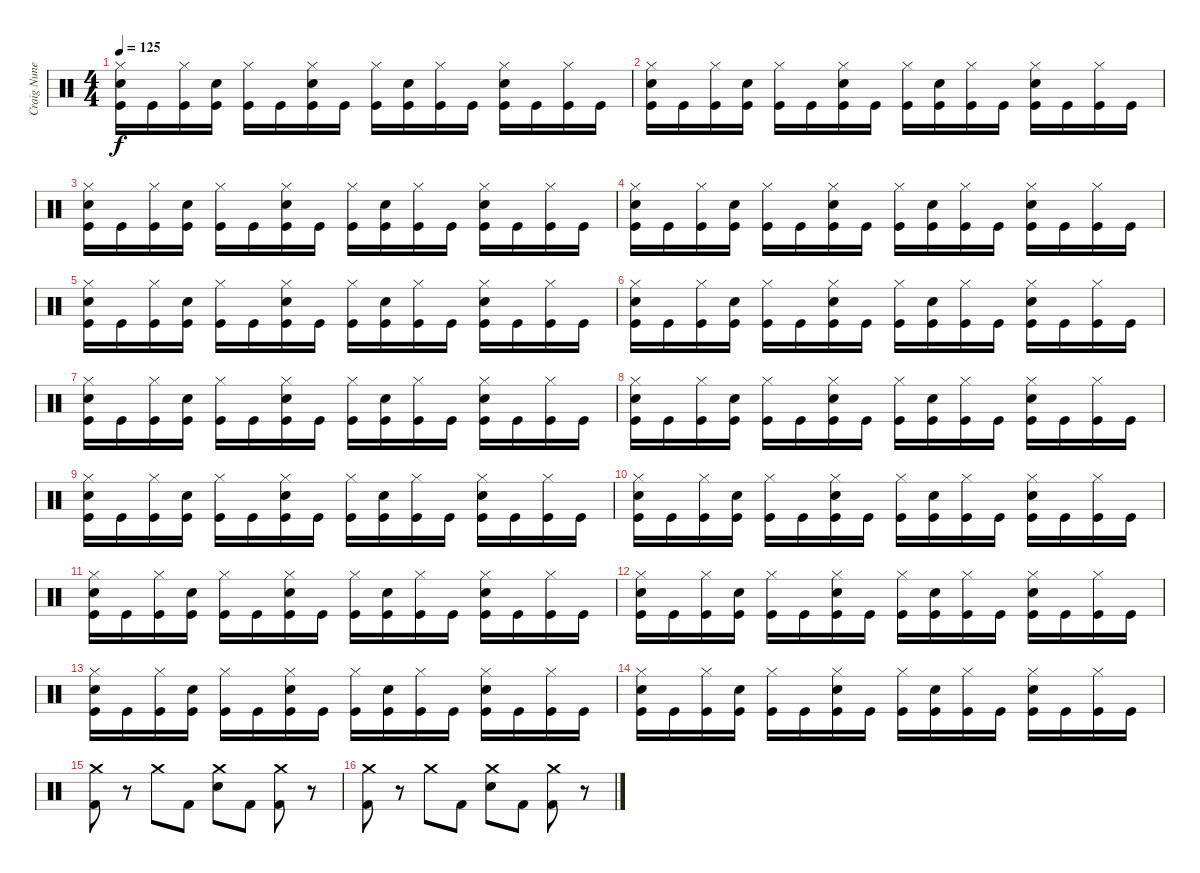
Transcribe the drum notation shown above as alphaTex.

\track ("Craig Nunenmacher (Drums)" "Craig Nune") {instrument percussion}
\staff {score}
\articulation defaults
\ts (4 4)
\tempo 125
\clef neutral
\ks c
("Hi-Hat (closed)" "Snare (hit) 2" "Kick (hit)").16{dy f} "Kick (hit)".16 ("Hi-Hat (closed)" "Kick (hit)").16 ("Snare (hit) 2" "Kick (hit)").16 ("Hi-Hat (closed)" "Kick (hit)").16 "Kick (hit)".16 ("Hi-Hat (closed)" "Snare (hit) 2" "Kick (hit)").16 "Kick (hit)".16 ("Hi-Hat (closed)" "Kick (hit)").16 ("Snare (hit) 2" "Kick (hit)").16 ("Hi-Hat (closed)" "Kick (hit)").16 "Kick (hit)".16 ("Hi-Hat (closed)" "Snare (hit) 2" "Kick (hit)").16 "Kick (hit)".16 ("Hi-Hat (closed)" "Kick (hit)").16 "Kick (hit)".16 |
("Hi-Hat (closed)" "Snare (hit) 2" "Kick (hit)").16 "Kick (hit)".16 ("Hi-Hat (closed)" "Kick (hit)").16 ("Snare (hit) 2" "Kick (hit)").16 ("Hi-Hat (closed)" "Kick (hit)").16 "Kick (hit)".16 ("Hi-Hat (closed)" "Snare (hit) 2" "Kick (hit)").16 "Kick (hit)".16 ("Hi-Hat (closed)" "Kick (hit)").16 ("Snare (hit) 2" "Kick (hit)").16 ("Hi-Hat (closed)" "Kick (hit)").16 "Kick (hit)".16 ("Hi-Hat (closed)" "Snare (hit) 2" "Kick (hit)").16 "Kick (hit)".16 ("Hi-Hat (closed)" "Kick (hit)").16 "Kick (hit)".16 |
("Hi-Hat (closed)" "Snare (hit) 2" "Kick (hit)").16 "Kick (hit)".16 ("Hi-Hat (closed)" "Kick (hit)").16 ("Snare (hit) 2" "Kick (hit)").16 ("Hi-Hat (closed)" "Kick (hit)").16 "Kick (hit)".16 ("Hi-Hat (closed)" "Snare (hit) 2" "Kick (hit)").16 "Kick (hit)".16 ("Hi-Hat (closed)" "Kick (hit)").16 ("Snare (hit) 2" "Kick (hit)").16 ("Hi-Hat (closed)" "Kick (hit)").16 "Kick (hit)".16 ("Hi-Hat (closed)" "Snare (hit) 2" "Kick (hit)").16 "Kick (hit)".16 ("Hi-Hat (closed)" "Kick (hit)").16 "Kick (hit)".16 |
("Hi-Hat (closed)" "Snare (hit) 2" "Kick (hit)").16 "Kick (hit)".16 ("Hi-Hat (closed)" "Kick (hit)").16 ("Snare (hit) 2" "Kick (hit)").16 ("Hi-Hat (closed)" "Kick (hit)").16 "Kick (hit)".16 ("Hi-Hat (closed)" "Snare (hit) 2" "Kick (hit)").16 "Kick (hit)".16 ("Hi-Hat (closed)" "Kick (hit)").16 ("Snare (hit) 2" "Kick (hit)").16 ("Hi-Hat (closed)" "Kick (hit)").16 "Kick (hit)".16 ("Hi-Hat (closed)" "Snare (hit) 2" "Kick (hit)").16 "Kick (hit)".16 ("Hi-Hat (closed)" "Kick (hit)").16 "Kick (hit)".16 |
("Hi-Hat (closed)" "Snare (hit) 2" "Kick (hit)").16 "Kick (hit)".16 ("Hi-Hat (closed)" "Kick (hit)").16 ("Snare (hit) 2" "Kick (hit)").16 ("Hi-Hat (closed)" "Kick (hit)").16 "Kick (hit)".16 ("Hi-Hat (closed)" "Snare (hit) 2" "Kick (hit)").16 "Kick (hit)".16 ("Hi-Hat (closed)" "Kick (hit)").16 ("Snare (hit) 2" "Kick (hit)").16 ("Hi-Hat (closed)" "Kick (hit)").16 "Kick (hit)".16 ("Hi-Hat (closed)" "Snare (hit) 2" "Kick (hit)").16 "Kick (hit)".16 ("Hi-Hat (closed)" "Kick (hit)").16 "Kick (hit)".16 |
("Hi-Hat (closed)" "Snare (hit) 2" "Kick (hit)").16 "Kick (hit)".16 ("Hi-Hat (closed)" "Kick (hit)").16 ("Snare (hit) 2" "Kick (hit)").16 ("Hi-Hat (closed)" "Kick (hit)").16 "Kick (hit)".16 ("Hi-Hat (closed)" "Snare (hit) 2" "Kick (hit)").16 "Kick (hit)".16 ("Hi-Hat (closed)" "Kick (hit)").16 ("Snare (hit) 2" "Kick (hit)").16 ("Hi-Hat (closed)" "Kick (hit)").16 "Kick (hit)".16 ("Hi-Hat (closed)" "Snare (hit) 2" "Kick (hit)").16 "Kick (hit)".16 ("Hi-Hat (closed)" "Kick (hit)").16 "Kick (hit)".16 |
("Hi-Hat (closed)" "Snare (hit) 2" "Kick (hit)").16 "Kick (hit)".16 ("Hi-Hat (closed)" "Kick (hit)").16 ("Snare (hit) 2" "Kick (hit)").16 ("Hi-Hat (closed)" "Kick (hit)").16 "Kick (hit)".16 ("Hi-Hat (closed)" "Snare (hit) 2" "Kick (hit)").16 "Kick (hit)".16 ("Hi-Hat (closed)" "Kick (hit)").16 ("Snare (hit) 2" "Kick (hit)").16 ("Hi-Hat (closed)" "Kick (hit)").16 "Kick (hit)".16 ("Hi-Hat (closed)" "Snare (hit) 2" "Kick (hit)").16 "Kick (hit)".16 ("Hi-Hat (closed)" "Kick (hit)").16 "Kick (hit)".16 |
("Hi-Hat (closed)" "Snare (hit) 2" "Kick (hit)").16 "Kick (hit)".16 ("Hi-Hat (closed)" "Kick (hit)").16 ("Snare (hit) 2" "Kick (hit)").16 ("Hi-Hat (closed)" "Kick (hit)").16 "Kick (hit)".16 ("Hi-Hat (closed)" "Snare (hit) 2" "Kick (hit)").16 "Kick (hit)".16 ("Hi-Hat (closed)" "Kick (hit)").16 ("Snare (hit) 2" "Kick (hit)").16 ("Hi-Hat (closed)" "Kick (hit)").16 "Kick (hit)".16 ("Hi-Hat (closed)" "Snare (hit) 2" "Kick (hit)").16 "Kick (hit)".16 ("Hi-Hat (closed)" "Kick (hit)").16 "Kick (hit)".16 |
("Hi-Hat (closed)" "Snare (hit) 2" "Kick (hit)").16 "Kick (hit)".16 ("Hi-Hat (closed)" "Kick (hit)").16 ("Snare (hit) 2" "Kick (hit)").16 ("Hi-Hat (closed)" "Kick (hit)").16 "Kick (hit)".16 ("Hi-Hat (closed)" "Snare (hit) 2" "Kick (hit)").16 "Kick (hit)".16 ("Hi-Hat (closed)" "Kick (hit)").16 ("Snare (hit) 2" "Kick (hit)").16 ("Hi-Hat (closed)" "Kick (hit)").16 "Kick (hit)".16 ("Hi-Hat (closed)" "Snare (hit) 2" "Kick (hit)").16 "Kick (hit)".16 ("Hi-Hat (closed)" "Kick (hit)").16 "Kick (hit)".16 |
("Hi-Hat (closed)" "Snare (hit) 2" "Kick (hit)").16 "Kick (hit)".16 ("Hi-Hat (closed)" "Kick (hit)").16 ("Snare (hit) 2" "Kick (hit)").16 ("Hi-Hat (closed)" "Kick (hit)").16 "Kick (hit)".16 ("Hi-Hat (closed)" "Snare (hit) 2" "Kick (hit)").16 "Kick (hit)".16 ("Hi-Hat (closed)" "Kick (hit)").16 ("Snare (hit) 2" "Kick (hit)").16 ("Hi-Hat (closed)" "Kick (hit)").16 "Kick (hit)".16 ("Hi-Hat (closed)" "Snare (hit) 2" "Kick (hit)").16 "Kick (hit)".16 ("Hi-Hat (closed)" "Kick (hit)").16 "Kick (hit)".16 |
("Hi-Hat (closed)" "Snare (hit) 2" "Kick (hit)").16 "Kick (hit)".16 ("Hi-Hat (closed)" "Kick (hit)").16 ("Snare (hit) 2" "Kick (hit)").16 ("Hi-Hat (closed)" "Kick (hit)").16 "Kick (hit)".16 ("Hi-Hat (closed)" "Snare (hit) 2" "Kick (hit)").16 "Kick (hit)".16 ("Hi-Hat (closed)" "Kick (hit)").16 ("Snare (hit) 2" "Kick (hit)").16 ("Hi-Hat (closed)" "Kick (hit)").16 "Kick (hit)".16 ("Hi-Hat (closed)" "Snare (hit) 2" "Kick (hit)").16 "Kick (hit)".16 ("Hi-Hat (closed)" "Kick (hit)").16 "Kick (hit)".16 |
("Hi-Hat (closed)" "Snare (hit) 2" "Kick (hit)").16 "Kick (hit)".16 ("Hi-Hat (closed)" "Kick (hit)").16 ("Snare (hit) 2" "Kick (hit)").16 ("Hi-Hat (closed)" "Kick (hit)").16 "Kick (hit)".16 ("Hi-Hat (closed)" "Snare (hit) 2" "Kick (hit)").16 "Kick (hit)".16 ("Hi-Hat (closed)" "Kick (hit)").16 ("Snare (hit) 2" "Kick (hit)").16 ("Hi-Hat (closed)" "Kick (hit)").16 "Kick (hit)".16 ("Hi-Hat (closed)" "Snare (hit) 2" "Kick (hit)").16 "Kick (hit)".16 ("Hi-Hat (closed)" "Kick (hit)").16 "Kick (hit)".16 |
("Hi-Hat (closed)" "Snare (hit) 2" "Kick (hit)").16 "Kick (hit)".16 ("Hi-Hat (closed)" "Kick (hit)").16 ("Snare (hit) 2" "Kick (hit)").16 ("Hi-Hat (closed)" "Kick (hit)").16 "Kick (hit)".16 ("Hi-Hat (closed)" "Snare (hit) 2" "Kick (hit)").16 "Kick (hit)".16 ("Hi-Hat (closed)" "Kick (hit)").16 ("Snare (hit) 2" "Kick (hit)").16 ("Hi-Hat (closed)" "Kick (hit)").16 "Kick (hit)".16 ("Hi-Hat (closed)" "Snare (hit) 2" "Kick (hit)").16 "Kick (hit)".16 ("Hi-Hat (closed)" "Kick (hit)").16 "Kick (hit)".16 |
("Hi-Hat (closed)" "Snare (hit) 2" "Kick (hit)").16 "Kick (hit)".16 ("Hi-Hat (closed)" "Kick (hit)").16 ("Snare (hit) 2" "Kick (hit)").16 ("Hi-Hat (closed)" "Kick (hit)").16 "Kick (hit)".16 ("Hi-Hat (closed)" "Snare (hit) 2" "Kick (hit)").16 "Kick (hit)".16 ("Hi-Hat (closed)" "Kick (hit)").16 ("Snare (hit) 2" "Kick (hit)").16 ("Hi-Hat (closed)" "Kick (hit)").16 "Kick (hit)".16 ("Hi-Hat (closed)" "Snare (hit) 2" "Kick (hit)").16 "Kick (hit)".16 ("Hi-Hat (closed)" "Kick (hit)").16 "Kick (hit)".16 |
("Crash medium (hit)" "Kick (hit) 2").8 r.8 "Crash medium (hit)".8 "Kick (hit) 2".8 ("Crash medium (hit)" "Snare (hit) 2").8 "Kick (hit) 2".8 ("Crash medium (hit)" "Kick (hit) 2").8 r.8 |
("Crash medium (hit)" "Kick (hit) 2").8 r.8 "Crash medium (hit)".8 "Kick (hit) 2".8 ("Crash medium (hit)" "Snare (hit) 2").8 "Kick (hit) 2".8 ("Crash medium (hit)" "Kick (hit) 2").8 r.8
